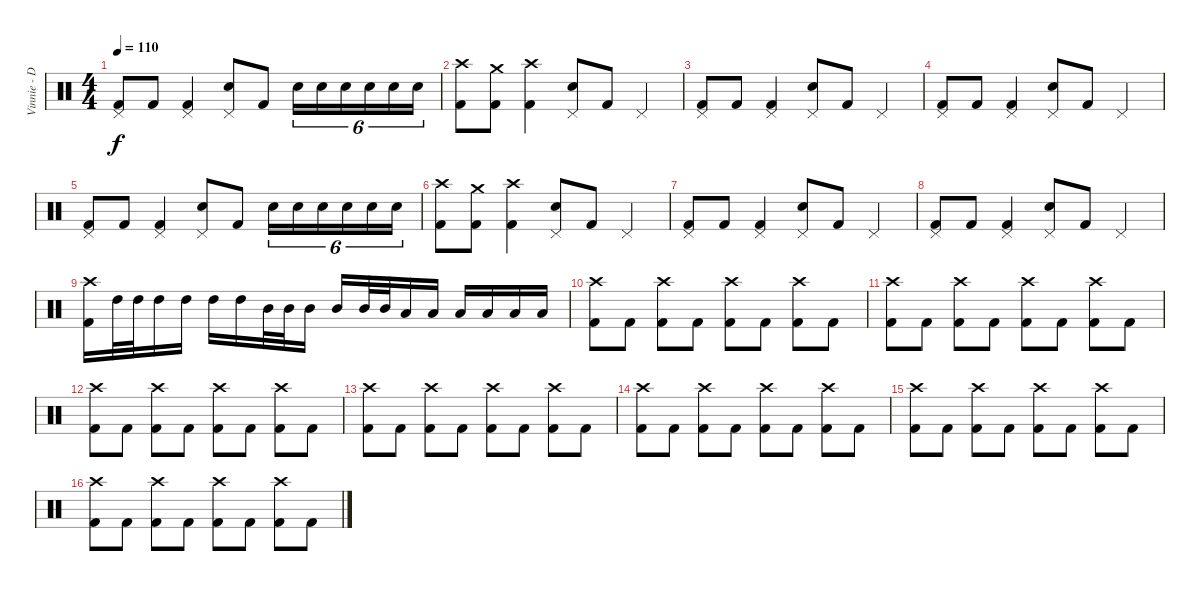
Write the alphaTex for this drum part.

\track ("Vinnie - Drums" "Vinnie - D") {instrument percussion}
\staff {score}
\articulation defaults
\ts (4 4)
\tempo 110
\clef neutral
\ks c
("Pedal Hi-Hat (hit)" "Kick (hit) 2").8{dy f} "Kick (hit) 2".8 ("Pedal Hi-Hat (hit)" "Kick (hit) 2").4 ("Pedal Hi-Hat (hit)" "Electric Snare (hit)").8 "Kick (hit) 2".8 "Electric Snare (hit)".16{tu (6 4)} "Electric Snare (hit)".16{tu (6 4)} "Electric Snare (hit)".16{tu (6 4)} "Electric Snare (hit)".16{tu (6 4)} "Electric Snare (hit)".16{tu (6 4)} "Electric Snare (hit)".16{tu (6 4)} |
("Crash high (hit)" "Kick (hit) 2").8 ("Crash medium (hit)" "Kick (hit) 2").8 ("Crash high (hit)" "Kick (hit) 2").4 ("Pedal Hi-Hat (hit)" "Electric Snare (hit)").8 "Kick (hit) 2".8 "Pedal Hi-Hat (hit)".4 |
("Pedal Hi-Hat (hit)" "Kick (hit) 2").8 "Kick (hit) 2".8 ("Pedal Hi-Hat (hit)" "Kick (hit) 2").4 ("Pedal Hi-Hat (hit)" "Electric Snare (hit)").8 "Kick (hit) 2".8 "Pedal Hi-Hat (hit)".4 |
("Pedal Hi-Hat (hit)" "Kick (hit) 2").8 "Kick (hit) 2".8 ("Pedal Hi-Hat (hit)" "Kick (hit) 2").4 ("Pedal Hi-Hat (hit)" "Electric Snare (hit)").8 "Kick (hit) 2".8 "Pedal Hi-Hat (hit)".4 |
("Pedal Hi-Hat (hit)" "Kick (hit) 2").8 "Kick (hit) 2".8 ("Pedal Hi-Hat (hit)" "Kick (hit) 2").4 ("Pedal Hi-Hat (hit)" "Electric Snare (hit)").8 "Kick (hit) 2".8 "Electric Snare (hit)".16{tu (6 4)} "Electric Snare (hit)".16{tu (6 4)} "Electric Snare (hit)".16{tu (6 4)} "Electric Snare (hit)".16{tu (6 4)} "Electric Snare (hit)".16{tu (6 4)} "Electric Snare (hit)".16{tu (6 4)} |
("Crash high (hit)" "Kick (hit) 2").8 ("Crash medium (hit)" "Kick (hit) 2").8 ("Crash high (hit)" "Kick (hit) 2").4 ("Pedal Hi-Hat (hit)" "Electric Snare (hit)").8 "Kick (hit) 2".8 "Pedal Hi-Hat (hit)".4 |
("Pedal Hi-Hat (hit)" "Kick (hit) 2").8 "Kick (hit) 2".8 ("Pedal Hi-Hat (hit)" "Kick (hit) 2").4 ("Pedal Hi-Hat (hit)" "Electric Snare (hit)").8 "Kick (hit) 2".8 "Pedal Hi-Hat (hit)".4 |
("Pedal Hi-Hat (hit)" "Kick (hit) 2").8 "Kick (hit) 2".8 ("Pedal Hi-Hat (hit)" "Kick (hit) 2").4 ("Pedal Hi-Hat (hit)" "Electric Snare (hit)").8 "Kick (hit) 2".8 "Pedal Hi-Hat (hit)".4 |
("Crash high (hit)" "Kick (hit) 2").16 "High Tom (hit)".32 "High Tom (hit)".32 "High Tom (hit)".16 "High Tom (hit)".16 "High Tom (hit)".16 "High Tom (hit)".16 "Mid Tom (hit)".32 "Mid Tom (hit)".32 "Mid Tom (hit)".16 "Mid Tom (hit)".16 "Mid Tom (hit)".32 "Mid Tom (hit)".32 "Low Tom (hit)".16 "Low Tom (hit)".16 "Low Tom (hit)".16 "Low Tom (hit)".16 "Low Tom (hit)".16 "Low Tom (hit)".16 |
("Crash high (hit)" "Kick (hit) 2").8 "Kick (hit) 2".8 ("Crash high (hit)" "Kick (hit) 2").8 "Kick (hit) 2".8 ("Crash high (hit)" "Kick (hit) 2").8 "Kick (hit) 2".8 ("Crash high (hit)" "Kick (hit) 2").8 "Kick (hit) 2".8 |
("Crash high (hit)" "Kick (hit) 2").8 "Kick (hit) 2".8 ("Crash high (hit)" "Kick (hit) 2").8 "Kick (hit) 2".8 ("Crash high (hit)" "Kick (hit) 2").8 "Kick (hit) 2".8 ("Crash high (hit)" "Kick (hit) 2").8 "Kick (hit) 2".8 |
("Crash high (hit)" "Kick (hit) 2").8 "Kick (hit) 2".8 ("Crash high (hit)" "Kick (hit) 2").8 "Kick (hit) 2".8 ("Crash high (hit)" "Kick (hit) 2").8 "Kick (hit) 2".8 ("Crash high (hit)" "Kick (hit) 2").8 "Kick (hit) 2".8 |
("Crash high (hit)" "Kick (hit) 2").8 "Kick (hit) 2".8 ("Crash high (hit)" "Kick (hit) 2").8 "Kick (hit) 2".8 ("Crash high (hit)" "Kick (hit) 2").8 "Kick (hit) 2".8 ("Crash high (hit)" "Kick (hit) 2").8 "Kick (hit) 2".8 |
("Crash high (hit)" "Kick (hit) 2").8 "Kick (hit) 2".8 ("Crash high (hit)" "Kick (hit) 2").8 "Kick (hit) 2".8 ("Crash high (hit)" "Kick (hit) 2").8 "Kick (hit) 2".8 ("Crash high (hit)" "Kick (hit) 2").8 "Kick (hit) 2".8 |
("Crash high (hit)" "Kick (hit) 2").8 "Kick (hit) 2".8 ("Crash high (hit)" "Kick (hit) 2").8 "Kick (hit) 2".8 ("Crash high (hit)" "Kick (hit) 2").8 "Kick (hit) 2".8 ("Crash high (hit)" "Kick (hit) 2").8 "Kick (hit) 2".8 |
("Crash high (hit)" "Kick (hit) 2").8 "Kick (hit) 2".8 ("Crash high (hit)" "Kick (hit) 2").8 "Kick (hit) 2".8 ("Crash high (hit)" "Kick (hit) 2").8 "Kick (hit) 2".8 ("Crash high (hit)" "Kick (hit) 2").8 "Kick (hit) 2".8
